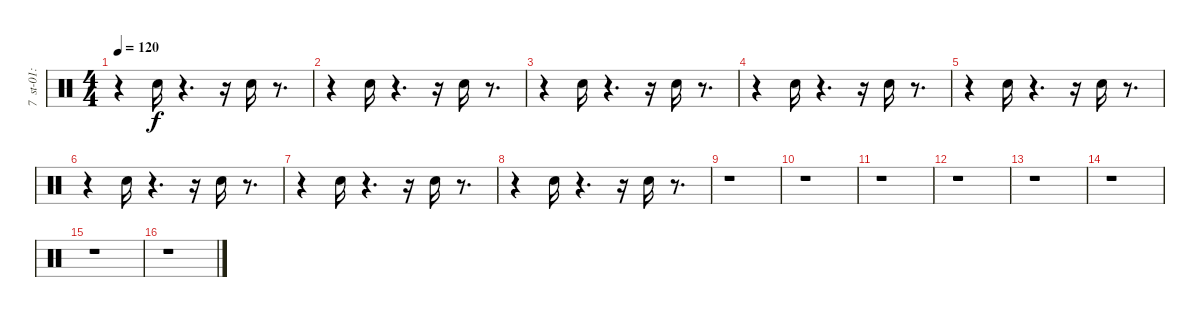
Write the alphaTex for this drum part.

\track (" 7  st-01:claps1" " 7  st-01:") {instrument percussion}
\staff {score}
\articulation defaults
\ts (4 4)
\tempo 120
\clef neutral
\ks c
r.4{dy f} "Hand Clap (hit)".16 r.4{d} r.16 "Hand Clap (hit)".16 r.8{d} |
r.4 "Hand Clap (hit)".16 r.4{d} r.16 "Hand Clap (hit)".16 r.8{d} |
r.4 "Hand Clap (hit)".16 r.4{d} r.16 "Hand Clap (hit)".16 r.8{d} |
r.4 "Hand Clap (hit)".16 r.4{d} r.16 "Hand Clap (hit)".16 r.8{d} |
r.4 "Hand Clap (hit)".16 r.4{d} r.16 "Hand Clap (hit)".16 r.8{d} |
r.4 "Hand Clap (hit)".16 r.4{d} r.16 "Hand Clap (hit)".16 r.8{d} |
r.4 "Hand Clap (hit)".16 r.4{d} r.16 "Hand Clap (hit)".16 r.8{d} |
r.4 "Hand Clap (hit)".16 r.4{d} r.16 "Hand Clap (hit)".16 r.8{d} |
r.1 |
r.1 |
r.1 |
r.1 |
r.1 |
r.1 |
r.1 |
r.1
